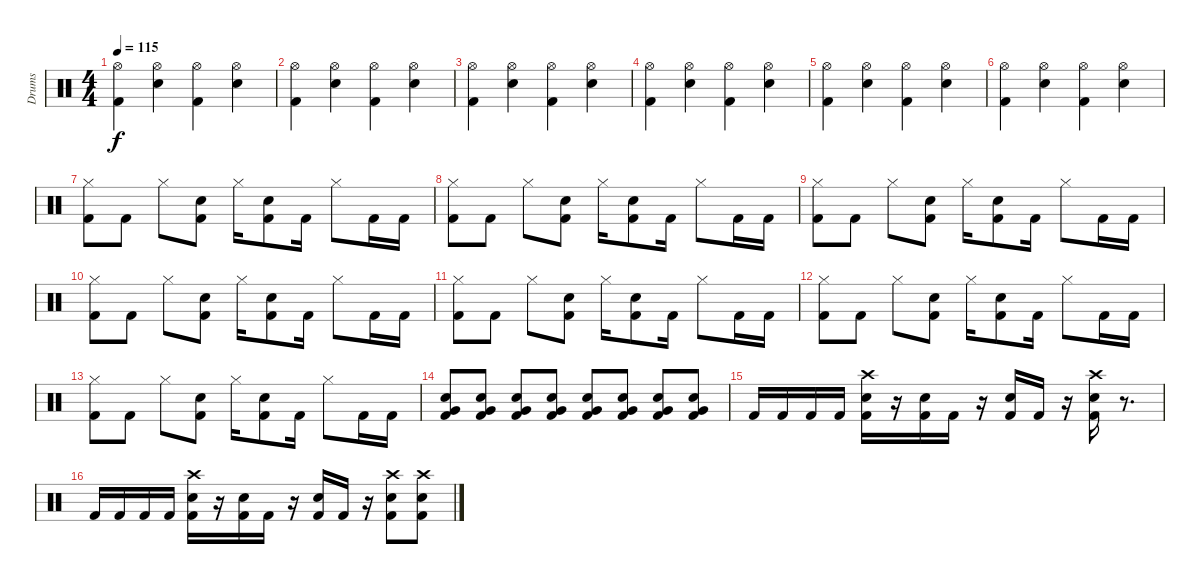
\track ("Drums" "Drums") {instrument percussion}
\staff {score}
\articulation defaults
\ts (4 4)
\tempo 115
\clef neutral
\ks c
("Hi-Hat (open)" "Kick (hit) 2").4{dy f} ("Hi-Hat (open)" "Snare (hit) 2").4 ("Hi-Hat (open)" "Kick (hit) 2").4 ("Hi-Hat (open)" "Snare (hit) 2").4 |
("Hi-Hat (open)" "Kick (hit) 2").4 ("Hi-Hat (open)" "Snare (hit) 2").4 ("Hi-Hat (open)" "Kick (hit) 2").4 ("Hi-Hat (open)" "Snare (hit) 2").4 |
("Hi-Hat (open)" "Kick (hit) 2").4 ("Hi-Hat (open)" "Snare (hit) 2").4 ("Hi-Hat (open)" "Kick (hit) 2").4 ("Hi-Hat (open)" "Snare (hit) 2").4 |
("Hi-Hat (open)" "Kick (hit) 2").4 ("Hi-Hat (open)" "Snare (hit) 2").4 ("Hi-Hat (open)" "Kick (hit) 2").4 ("Hi-Hat (open)" "Snare (hit) 2").4 |
("Hi-Hat (open)" "Kick (hit) 2").4 ("Hi-Hat (open)" "Snare (hit) 2").4 ("Hi-Hat (open)" "Kick (hit) 2").4 ("Hi-Hat (open)" "Snare (hit) 2").4 |
("Hi-Hat (open)" "Kick (hit) 2").4 ("Hi-Hat (open)" "Snare (hit) 2").4 ("Hi-Hat (open)" "Kick (hit) 2").4 ("Hi-Hat (open)" "Snare (hit) 2").4 |
("Hi-Hat (closed)" "Kick (hit) 2").8 "Kick (hit) 2".8 "Hi-Hat (closed)".8 ("Snare (hit) 2" "Kick (hit) 2").8 "Hi-Hat (closed)".16 ("Snare (hit) 2" "Kick (hit) 2").8 "Kick (hit) 2".16 "Hi-Hat (closed)".8 "Kick (hit) 2".16 "Kick (hit) 2".16 |
("Hi-Hat (closed)" "Kick (hit) 2").8 "Kick (hit) 2".8 "Hi-Hat (closed)".8 ("Snare (hit) 2" "Kick (hit) 2").8 "Hi-Hat (closed)".16 ("Snare (hit) 2" "Kick (hit) 2").8 "Kick (hit) 2".16 "Hi-Hat (closed)".8 "Kick (hit) 2".16 "Kick (hit) 2".16 |
("Hi-Hat (closed)" "Kick (hit) 2").8 "Kick (hit) 2".8 "Hi-Hat (closed)".8 ("Snare (hit) 2" "Kick (hit) 2").8 "Hi-Hat (closed)".16 ("Snare (hit) 2" "Kick (hit) 2").8 "Kick (hit) 2".16 "Hi-Hat (closed)".8 "Kick (hit) 2".16 "Kick (hit) 2".16 |
("Hi-Hat (closed)" "Kick (hit) 2").8 "Kick (hit) 2".8 "Hi-Hat (closed)".8 ("Snare (hit) 2" "Kick (hit) 2").8 "Hi-Hat (closed)".16 ("Snare (hit) 2" "Kick (hit) 2").8 "Kick (hit) 2".16 "Hi-Hat (closed)".8 "Kick (hit) 2".16 "Kick (hit) 2".16 |
("Hi-Hat (closed)" "Kick (hit) 2").8 "Kick (hit) 2".8 "Hi-Hat (closed)".8 ("Snare (hit) 2" "Kick (hit) 2").8 "Hi-Hat (closed)".16 ("Snare (hit) 2" "Kick (hit) 2").8 "Kick (hit) 2".16 "Hi-Hat (closed)".8 "Kick (hit) 2".16 "Kick (hit) 2".16 |
("Hi-Hat (closed)" "Kick (hit) 2").8 "Kick (hit) 2".8 "Hi-Hat (closed)".8 ("Snare (hit) 2" "Kick (hit) 2").8 "Hi-Hat (closed)".16 ("Snare (hit) 2" "Kick (hit) 2").8 "Kick (hit) 2".16 "Hi-Hat (closed)".8 "Kick (hit) 2".16 "Kick (hit) 2".16 |
("Hi-Hat (closed)" "Kick (hit) 2").8 "Kick (hit) 2".8 "Hi-Hat (closed)".8 ("Snare (hit) 2" "Kick (hit) 2").8 "Hi-Hat (closed)".16 ("Snare (hit) 2" "Kick (hit) 2").8 "Kick (hit) 2".16 "Hi-Hat (closed)".8 "Kick (hit) 2".16 "Kick (hit) 2".16 |
("Very Low Tom (hit)" "Snare (hit) 2" "Kick (hit) 2").8 ("Very Low Tom (hit)" "Snare (hit) 2" "Kick (hit) 2").8 ("Very Low Tom (hit)" "Snare (hit) 2" "Kick (hit) 2").8 ("Very Low Tom (hit)" "Snare (hit) 2" "Kick (hit) 2").8 ("Very Low Tom (hit)" "Snare (hit) 2" "Kick (hit) 2").8 ("Very Low Tom (hit)" "Snare (hit) 2" "Kick (hit) 2").8 ("Very Low Tom (hit)" "Snare (hit) 2" "Kick (hit) 2").8 ("Very Low Tom (hit)" "Snare (hit) 2" "Kick (hit) 2").8 |
"Kick (hit) 2".16 "Kick (hit) 2".16 "Kick (hit) 2".16 "Kick (hit) 2".16 ("Crash high (hit)" "Snare (hit) 2" "Kick (hit) 2").16 r.16 ("Snare (hit) 2" "Kick (hit) 2").16 "Kick (hit) 2".16 r.16 ("Snare (hit) 2" "Kick (hit) 2").16 "Kick (hit) 2".16 r.16 ("Crash high (hit)" "Snare (hit) 2" "Kick (hit) 2").16 r.8{d} |
"Kick (hit) 2".16 "Kick (hit) 2".16 "Kick (hit) 2".16 "Kick (hit) 2".16 ("Crash high (hit)" "Snare (hit) 2" "Kick (hit) 2").16 r.16 ("Snare (hit) 2" "Kick (hit) 2").16 "Kick (hit) 2".16 r.16 ("Snare (hit) 2" "Kick (hit) 2").16 "Kick (hit) 2".16 r.16 ("Crash high (hit)" "Snare (hit) 2" "Kick (hit) 2").8 ("Crash high (hit)" "Snare (hit) 2" "Kick (hit) 2").8
